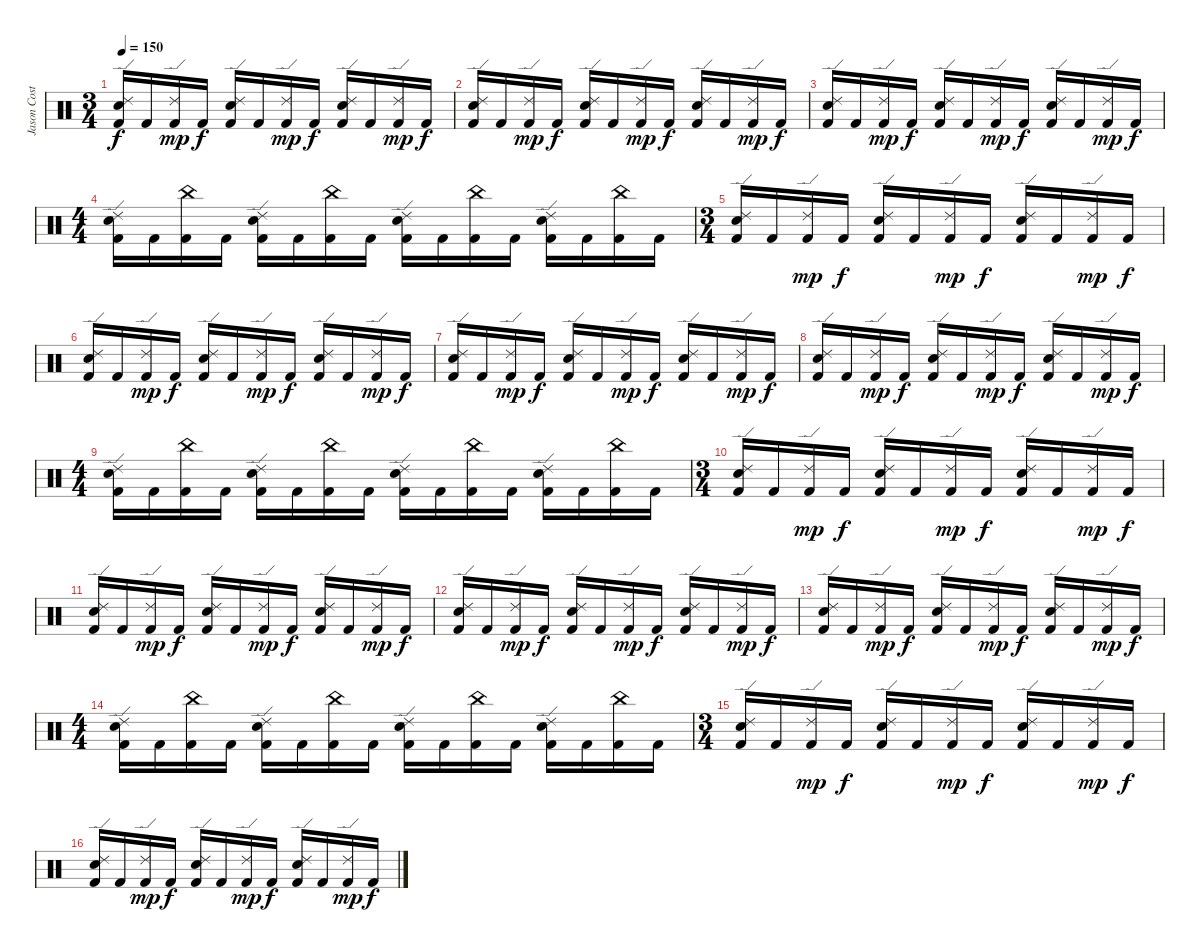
\track ("Jason Costa" "Jason Cost") {instrument percussion}
\staff {score}
\articulation defaults
\ts (3 4)
\tempo 150
\clef neutral
\ks c
("Ride (edge) 2" "Electric Snare (hit)" "Kick (hit) 2").16{dy f} "Kick (hit) 2".16 ("Ride (edge) 2" "Kick (hit) 2").16{dy mp} "Kick (hit) 2".16{dy f} ("Ride (edge) 2" "Electric Snare (hit)" "Kick (hit) 2").16 "Kick (hit) 2".16 ("Ride (edge) 2" "Kick (hit) 2").16{dy mp} "Kick (hit) 2".16{dy f} ("Ride (edge) 2" "Electric Snare (hit)" "Kick (hit) 2").16 "Kick (hit) 2".16 ("Ride (edge) 2" "Kick (hit) 2").16{dy mp} "Kick (hit) 2".16{dy f} |
("Ride (edge) 2" "Electric Snare (hit)" "Kick (hit) 2").16 "Kick (hit) 2".16 ("Ride (edge) 2" "Kick (hit) 2").16{dy mp} "Kick (hit) 2".16{dy f} ("Ride (edge) 2" "Electric Snare (hit)" "Kick (hit) 2").16 "Kick (hit) 2".16 ("Ride (edge) 2" "Kick (hit) 2").16{dy mp} "Kick (hit) 2".16{dy f} ("Ride (edge) 2" "Electric Snare (hit)" "Kick (hit) 2").16 "Kick (hit) 2".16 ("Ride (edge) 2" "Kick (hit) 2").16{dy mp} "Kick (hit) 2".16{dy f} |
("Ride (edge) 2" "Electric Snare (hit)" "Kick (hit) 2").16 "Kick (hit) 2".16 ("Ride (edge) 2" "Kick (hit) 2").16{dy mp} "Kick (hit) 2".16{dy f} ("Ride (edge) 2" "Electric Snare (hit)" "Kick (hit) 2").16 "Kick (hit) 2".16 ("Ride (edge) 2" "Kick (hit) 2").16{dy mp} "Kick (hit) 2".16{dy f} ("Ride (edge) 2" "Electric Snare (hit)" "Kick (hit) 2").16 "Kick (hit) 2".16 ("Ride (edge) 2" "Kick (hit) 2").16{dy mp} "Kick (hit) 2".16{dy f} |
\ts (4 4)
("Ride (edge) 2" "Electric Snare (hit)" "Kick (hit) 2").16 "Kick (hit) 2".16 ("China (hit)" "Kick (hit) 2").16 "Kick (hit) 2".16 ("Ride (edge) 2" "Electric Snare (hit)" "Kick (hit) 2").16 "Kick (hit) 2".16 ("China (hit)" "Kick (hit) 2").16 "Kick (hit) 2".16 ("Ride (edge) 2" "Electric Snare (hit)" "Kick (hit) 2").16 "Kick (hit) 2".16 ("China (hit)" "Kick (hit) 2").16 "Kick (hit) 2".16 ("Ride (edge) 2" "Electric Snare (hit)" "Kick (hit) 2").16 "Kick (hit) 2".16 ("China (hit)" "Kick (hit) 2").16 "Kick (hit) 2".16 |
\ts (3 4)
("Ride (edge) 2" "Electric Snare (hit)" "Kick (hit) 2").16 "Kick (hit) 2".16 ("Ride (edge) 2" "Kick (hit) 2").16{dy mp} "Kick (hit) 2".16{dy f} ("Ride (edge) 2" "Electric Snare (hit)" "Kick (hit) 2").16 "Kick (hit) 2".16 ("Ride (edge) 2" "Kick (hit) 2").16{dy mp} "Kick (hit) 2".16{dy f} ("Ride (edge) 2" "Electric Snare (hit)" "Kick (hit) 2").16 "Kick (hit) 2".16 ("Ride (edge) 2" "Kick (hit) 2").16{dy mp} "Kick (hit) 2".16{dy f} |
("Ride (edge) 2" "Electric Snare (hit)" "Kick (hit) 2").16 "Kick (hit) 2".16 ("Ride (edge) 2" "Kick (hit) 2").16{dy mp} "Kick (hit) 2".16{dy f} ("Ride (edge) 2" "Electric Snare (hit)" "Kick (hit) 2").16 "Kick (hit) 2".16 ("Ride (edge) 2" "Kick (hit) 2").16{dy mp} "Kick (hit) 2".16{dy f} ("Ride (edge) 2" "Electric Snare (hit)" "Kick (hit) 2").16 "Kick (hit) 2".16 ("Ride (edge) 2" "Kick (hit) 2").16{dy mp} "Kick (hit) 2".16{dy f} |
("Ride (edge) 2" "Electric Snare (hit)" "Kick (hit) 2").16 "Kick (hit) 2".16 ("Ride (edge) 2" "Kick (hit) 2").16{dy mp} "Kick (hit) 2".16{dy f} ("Ride (edge) 2" "Electric Snare (hit)" "Kick (hit) 2").16 "Kick (hit) 2".16 ("Ride (edge) 2" "Kick (hit) 2").16{dy mp} "Kick (hit) 2".16{dy f} ("Ride (edge) 2" "Electric Snare (hit)" "Kick (hit) 2").16 "Kick (hit) 2".16 ("Ride (edge) 2" "Kick (hit) 2").16{dy mp} "Kick (hit) 2".16{dy f} |
("Ride (edge) 2" "Electric Snare (hit)" "Kick (hit) 2").16 "Kick (hit) 2".16 ("Ride (edge) 2" "Kick (hit) 2").16{dy mp} "Kick (hit) 2".16{dy f} ("Ride (edge) 2" "Electric Snare (hit)" "Kick (hit) 2").16 "Kick (hit) 2".16 ("Ride (edge) 2" "Kick (hit) 2").16{dy mp} "Kick (hit) 2".16{dy f} ("Ride (edge) 2" "Electric Snare (hit)" "Kick (hit) 2").16 "Kick (hit) 2".16 ("Ride (edge) 2" "Kick (hit) 2").16{dy mp} "Kick (hit) 2".16{dy f} |
\ts (4 4)
("Ride (edge) 2" "Electric Snare (hit)" "Kick (hit) 2").16 "Kick (hit) 2".16 ("China (hit)" "Kick (hit) 2").16 "Kick (hit) 2".16 ("Ride (edge) 2" "Electric Snare (hit)" "Kick (hit) 2").16 "Kick (hit) 2".16 ("China (hit)" "Kick (hit) 2").16 "Kick (hit) 2".16 ("Ride (edge) 2" "Electric Snare (hit)" "Kick (hit) 2").16 "Kick (hit) 2".16 ("China (hit)" "Kick (hit) 2").16 "Kick (hit) 2".16 ("Ride (edge) 2" "Electric Snare (hit)" "Kick (hit) 2").16 "Kick (hit) 2".16 ("China (hit)" "Kick (hit) 2").16 "Kick (hit) 2".16 |
\ts (3 4)
("Ride (edge) 2" "Electric Snare (hit)" "Kick (hit) 2").16 "Kick (hit) 2".16 ("Ride (edge) 2" "Kick (hit) 2").16{dy mp} "Kick (hit) 2".16{dy f} ("Ride (edge) 2" "Electric Snare (hit)" "Kick (hit) 2").16 "Kick (hit) 2".16 ("Ride (edge) 2" "Kick (hit) 2").16{dy mp} "Kick (hit) 2".16{dy f} ("Ride (edge) 2" "Electric Snare (hit)" "Kick (hit) 2").16 "Kick (hit) 2".16 ("Ride (edge) 2" "Kick (hit) 2").16{dy mp} "Kick (hit) 2".16{dy f} |
("Ride (edge) 2" "Electric Snare (hit)" "Kick (hit) 2").16 "Kick (hit) 2".16 ("Ride (edge) 2" "Kick (hit) 2").16{dy mp} "Kick (hit) 2".16{dy f} ("Ride (edge) 2" "Electric Snare (hit)" "Kick (hit) 2").16 "Kick (hit) 2".16 ("Ride (edge) 2" "Kick (hit) 2").16{dy mp} "Kick (hit) 2".16{dy f} ("Ride (edge) 2" "Electric Snare (hit)" "Kick (hit) 2").16 "Kick (hit) 2".16 ("Ride (edge) 2" "Kick (hit) 2").16{dy mp} "Kick (hit) 2".16{dy f} |
("Ride (edge) 2" "Electric Snare (hit)" "Kick (hit) 2").16 "Kick (hit) 2".16 ("Ride (edge) 2" "Kick (hit) 2").16{dy mp} "Kick (hit) 2".16{dy f} ("Ride (edge) 2" "Electric Snare (hit)" "Kick (hit) 2").16 "Kick (hit) 2".16 ("Ride (edge) 2" "Kick (hit) 2").16{dy mp} "Kick (hit) 2".16{dy f} ("Ride (edge) 2" "Electric Snare (hit)" "Kick (hit) 2").16 "Kick (hit) 2".16 ("Ride (edge) 2" "Kick (hit) 2").16{dy mp} "Kick (hit) 2".16{dy f} |
("Ride (edge) 2" "Electric Snare (hit)" "Kick (hit) 2").16 "Kick (hit) 2".16 ("Ride (edge) 2" "Kick (hit) 2").16{dy mp} "Kick (hit) 2".16{dy f} ("Ride (edge) 2" "Electric Snare (hit)" "Kick (hit) 2").16 "Kick (hit) 2".16 ("Ride (edge) 2" "Kick (hit) 2").16{dy mp} "Kick (hit) 2".16{dy f} ("Ride (edge) 2" "Electric Snare (hit)" "Kick (hit) 2").16 "Kick (hit) 2".16 ("Ride (edge) 2" "Kick (hit) 2").16{dy mp} "Kick (hit) 2".16{dy f} |
\ts (4 4)
("Ride (edge) 2" "Electric Snare (hit)" "Kick (hit) 2").16 "Kick (hit) 2".16 ("China (hit)" "Kick (hit) 2").16 "Kick (hit) 2".16 ("Ride (edge) 2" "Electric Snare (hit)" "Kick (hit) 2").16 "Kick (hit) 2".16 ("China (hit)" "Kick (hit) 2").16 "Kick (hit) 2".16 ("Ride (edge) 2" "Electric Snare (hit)" "Kick (hit) 2").16 "Kick (hit) 2".16 ("China (hit)" "Kick (hit) 2").16 "Kick (hit) 2".16 ("Ride (edge) 2" "Electric Snare (hit)" "Kick (hit) 2").16 "Kick (hit) 2".16 ("China (hit)" "Kick (hit) 2").16 "Kick (hit) 2".16 |
\ts (3 4)
("Ride (edge) 2" "Electric Snare (hit)" "Kick (hit) 2").16 "Kick (hit) 2".16 ("Ride (edge) 2" "Kick (hit) 2").16{dy mp} "Kick (hit) 2".16{dy f} ("Ride (edge) 2" "Electric Snare (hit)" "Kick (hit) 2").16 "Kick (hit) 2".16 ("Ride (edge) 2" "Kick (hit) 2").16{dy mp} "Kick (hit) 2".16{dy f} ("Ride (edge) 2" "Electric Snare (hit)" "Kick (hit) 2").16 "Kick (hit) 2".16 ("Ride (edge) 2" "Kick (hit) 2").16{dy mp} "Kick (hit) 2".16{dy f} |
("Ride (edge) 2" "Electric Snare (hit)" "Kick (hit) 2").16 "Kick (hit) 2".16 ("Ride (edge) 2" "Kick (hit) 2").16{dy mp} "Kick (hit) 2".16{dy f} ("Ride (edge) 2" "Electric Snare (hit)" "Kick (hit) 2").16 "Kick (hit) 2".16 ("Ride (edge) 2" "Kick (hit) 2").16{dy mp} "Kick (hit) 2".16{dy f} ("Ride (edge) 2" "Electric Snare (hit)" "Kick (hit) 2").16 "Kick (hit) 2".16 ("Ride (edge) 2" "Kick (hit) 2").16{dy mp} "Kick (hit) 2".16{dy f}
